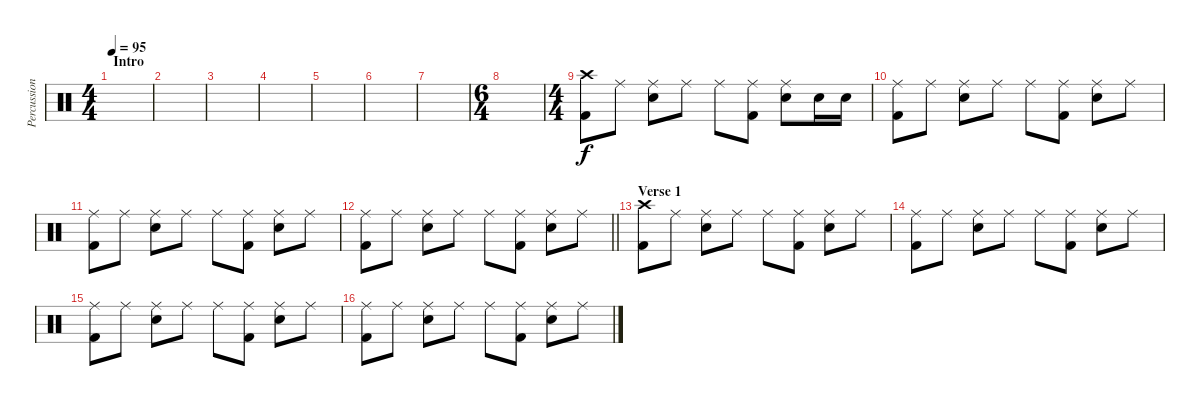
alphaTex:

\track ("Percussion" "Percussion") {instrument percussion}
\staff {score}
\articulation defaults
\ts (4 4)
\section ("" "Intro")
\tempo 95
\clef neutral
\ks c
|
|
|
|
|
|
|
\ts (6 4)
|
\ts (4 4)
("Crash high (hit)" "Kick (hit) 2").8 "Ride (middle)".8 ("Ride (middle)" "Snare (hit) 2").8 "Ride (middle)".8 "Ride (middle)".8 ("Ride (middle)" "Kick (hit) 2").8 ("Ride (middle)" "Snare (hit) 2").8 "Snare (hit) 2".16 "Snare (hit) 2".16 |
("Ride (middle)" "Kick (hit) 2").8 "Ride (middle)".8 ("Ride (middle)" "Snare (hit) 2").8 "Ride (middle)".8 "Ride (middle)".8 ("Ride (middle)" "Kick (hit) 2").8 ("Ride (middle)" "Snare (hit) 2").8 "Ride (middle)".8 |
("Ride (middle)" "Kick (hit) 2").8 "Ride (middle)".8 ("Ride (middle)" "Snare (hit) 2").8 "Ride (middle)".8 "Ride (middle)".8 ("Ride (middle)" "Kick (hit) 2").8 ("Ride (middle)" "Snare (hit) 2").8 "Ride (middle)".8 |
\barLineRight lightlight
("Ride (middle)" "Kick (hit) 2").8 "Ride (middle)".8 ("Ride (middle)" "Snare (hit) 2").8 "Ride (middle)".8 "Ride (middle)".8 ("Ride (middle)" "Kick (hit) 2").8 ("Ride (middle)" "Snare (hit) 2").8 "Ride (middle)".8 |
\section ("" "Verse 1")
("Crash high (hit)" "Kick (hit) 2").8 "Ride (middle)".8 ("Ride (middle)" "Snare (hit) 2").8 "Ride (middle)".8 "Ride (middle)".8 ("Ride (middle)" "Kick (hit) 2").8 ("Ride (middle)" "Snare (hit) 2").8 "Ride (middle)".8 |
("Ride (middle)" "Kick (hit) 2").8 "Ride (middle)".8 ("Ride (middle)" "Snare (hit) 2").8 "Ride (middle)".8 "Ride (middle)".8 ("Ride (middle)" "Kick (hit) 2").8 ("Ride (middle)" "Snare (hit) 2").8 "Ride (middle)".8 |
("Ride (middle)" "Kick (hit) 2").8 "Ride (middle)".8 ("Ride (middle)" "Snare (hit) 2").8 "Ride (middle)".8 "Ride (middle)".8 ("Ride (middle)" "Kick (hit) 2").8 ("Ride (middle)" "Snare (hit) 2").8 "Ride (middle)".8 |
("Ride (middle)" "Kick (hit) 2").8 "Ride (middle)".8 ("Ride (middle)" "Snare (hit) 2").8 "Ride (middle)".8 "Ride (middle)".8 ("Ride (middle)" "Kick (hit) 2").8 ("Ride (middle)" "Snare (hit) 2").8 "Ride (middle)".8
